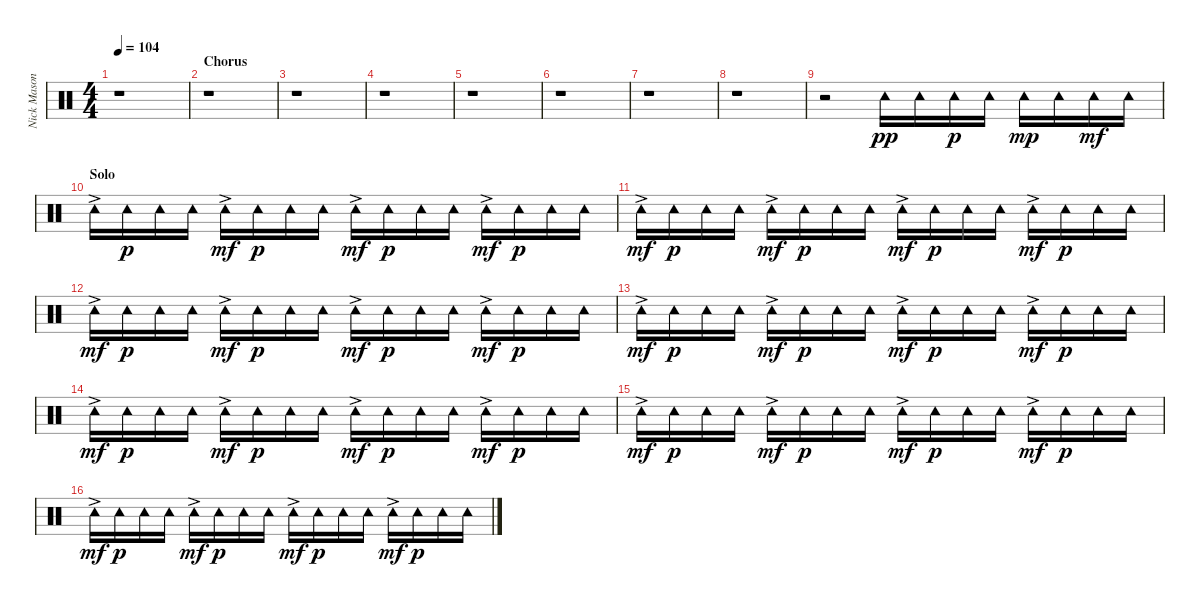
\track ("Nick Mason | Tambourine" "Nick Mason") {instrument percussion}
\staff {score}
\articulation defaults
\ts (4 4)
\tempo 104
\clef neutral
\ks c
r.1{dy pp} |
\section ("" "Chorus")
r.1 |
r.1 |
r.1 |
r.1 |
r.1 |
r.1 |
r.1 |
r.2 "Tambourine (hit)".16 "Tambourine (hit)".16 "Tambourine (hit)".16{dy p} "Tambourine (hit)".16 "Tambourine (hit)".16{dy mp} "Tambourine (hit)".16 "Tambourine (hit)".16{dy mf} "Tambourine (hit)".16 |
\section ("" "Solo")
"Tambourine (hit)"{ac}.16 "Tambourine (hit)".16{dy p} "Tambourine (hit)".16 "Tambourine (hit)".16 "Tambourine (hit)"{ac}.16{dy mf} "Tambourine (hit)".16{dy p} "Tambourine (hit)".16 "Tambourine (hit)".16 "Tambourine (hit)"{ac}.16{dy mf} "Tambourine (hit)".16{dy p} "Tambourine (hit)".16 "Tambourine (hit)".16 "Tambourine (hit)"{ac}.16{dy mf} "Tambourine (hit)".16{dy p} "Tambourine (hit)".16 "Tambourine (hit)".16 |
"Tambourine (hit)"{ac}.16{dy mf} "Tambourine (hit)".16{dy p} "Tambourine (hit)".16 "Tambourine (hit)".16 "Tambourine (hit)"{ac}.16{dy mf} "Tambourine (hit)".16{dy p} "Tambourine (hit)".16 "Tambourine (hit)".16 "Tambourine (hit)"{ac}.16{dy mf} "Tambourine (hit)".16{dy p} "Tambourine (hit)".16 "Tambourine (hit)".16 "Tambourine (hit)"{ac}.16{dy mf} "Tambourine (hit)".16{dy p} "Tambourine (hit)".16 "Tambourine (hit)".16 |
"Tambourine (hit)"{ac}.16{dy mf} "Tambourine (hit)".16{dy p} "Tambourine (hit)".16 "Tambourine (hit)".16 "Tambourine (hit)"{ac}.16{dy mf} "Tambourine (hit)".16{dy p} "Tambourine (hit)".16 "Tambourine (hit)".16 "Tambourine (hit)"{ac}.16{dy mf} "Tambourine (hit)".16{dy p} "Tambourine (hit)".16 "Tambourine (hit)".16 "Tambourine (hit)"{ac}.16{dy mf} "Tambourine (hit)".16{dy p} "Tambourine (hit)".16 "Tambourine (hit)".16 |
"Tambourine (hit)"{ac}.16{dy mf} "Tambourine (hit)".16{dy p} "Tambourine (hit)".16 "Tambourine (hit)".16 "Tambourine (hit)"{ac}.16{dy mf} "Tambourine (hit)".16{dy p} "Tambourine (hit)".16 "Tambourine (hit)".16 "Tambourine (hit)"{ac}.16{dy mf} "Tambourine (hit)".16{dy p} "Tambourine (hit)".16 "Tambourine (hit)".16 "Tambourine (hit)"{ac}.16{dy mf} "Tambourine (hit)".16{dy p} "Tambourine (hit)".16 "Tambourine (hit)".16 |
"Tambourine (hit)"{ac}.16{dy mf} "Tambourine (hit)".16{dy p} "Tambourine (hit)".16 "Tambourine (hit)".16 "Tambourine (hit)"{ac}.16{dy mf} "Tambourine (hit)".16{dy p} "Tambourine (hit)".16 "Tambourine (hit)".16 "Tambourine (hit)"{ac}.16{dy mf} "Tambourine (hit)".16{dy p} "Tambourine (hit)".16 "Tambourine (hit)".16 "Tambourine (hit)"{ac}.16{dy mf} "Tambourine (hit)".16{dy p} "Tambourine (hit)".16 "Tambourine (hit)".16 |
"Tambourine (hit)"{ac}.16{dy mf} "Tambourine (hit)".16{dy p} "Tambourine (hit)".16 "Tambourine (hit)".16 "Tambourine (hit)"{ac}.16{dy mf} "Tambourine (hit)".16{dy p} "Tambourine (hit)".16 "Tambourine (hit)".16 "Tambourine (hit)"{ac}.16{dy mf} "Tambourine (hit)".16{dy p} "Tambourine (hit)".16 "Tambourine (hit)".16 "Tambourine (hit)"{ac}.16{dy mf} "Tambourine (hit)".16{dy p} "Tambourine (hit)".16 "Tambourine (hit)".16 |
"Tambourine (hit)"{ac}.16{dy mf} "Tambourine (hit)".16{dy p} "Tambourine (hit)".16 "Tambourine (hit)".16 "Tambourine (hit)"{ac}.16{dy mf} "Tambourine (hit)".16{dy p} "Tambourine (hit)".16 "Tambourine (hit)".16 "Tambourine (hit)"{ac}.16{dy mf} "Tambourine (hit)".16{dy p} "Tambourine (hit)".16 "Tambourine (hit)".16 "Tambourine (hit)"{ac}.16{dy mf} "Tambourine (hit)".16{dy p} "Tambourine (hit)".16 "Tambourine (hit)".16
